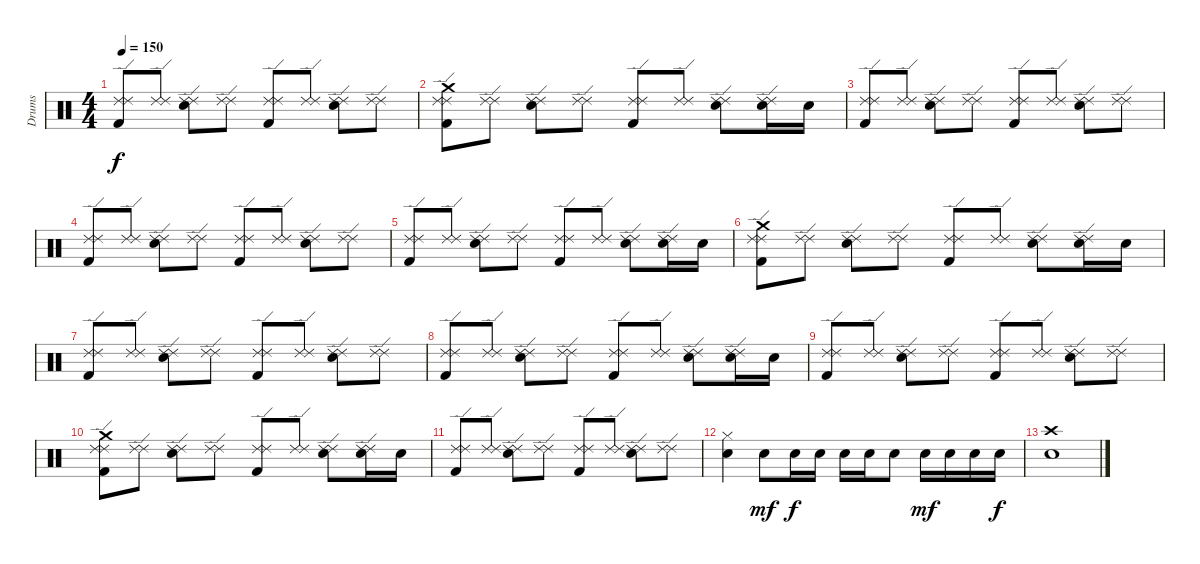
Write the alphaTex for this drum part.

\track ("Drums" "Drums") {instrument percussion}
\staff {score}
\articulation defaults
\ts (4 4)
\tempo 150
\clef neutral
\ks c
("Kick (hit) 2" "Ride (edge) 2" "Ride (edge) 2").8{dy f} ("Ride (edge) 2" "Ride (edge) 2").8 ("Snare (hit) 2" "Ride (edge) 2" "Ride (edge) 2").8 ("Ride (edge) 2" "Ride (edge) 2").8 ("Kick (hit) 2" "Ride (edge) 2" "Ride (edge) 2").8 ("Ride (edge) 2" "Ride (edge) 2").8 ("Snare (hit) 2" "Ride (edge) 2" "Ride (edge) 2").8 ("Ride (edge) 2" "Ride (edge) 2").8 |
("Crash medium (hit)" "Kick (hit) 2" "Ride (edge) 2" "Ride (edge) 2").8 ("Ride (edge) 2" "Ride (edge) 2").8 ("Snare (hit) 2" "Ride (edge) 2" "Ride (edge) 2").8 ("Ride (edge) 2" "Ride (edge) 2").8 ("Kick (hit) 2" "Ride (edge) 2" "Ride (edge) 2").8 ("Ride (edge) 2" "Ride (edge) 2").8 ("Snare (hit) 2" "Ride (edge) 2" "Ride (edge) 2").8 ("Snare (hit) 2" "Ride (edge) 2" "Ride (edge) 2").16 "Snare (hit) 2".16 |
("Kick (hit) 2" "Ride (edge) 2" "Ride (edge) 2").8 ("Ride (edge) 2" "Ride (edge) 2").8 ("Snare (hit) 2" "Ride (edge) 2" "Ride (edge) 2").8 ("Ride (edge) 2" "Ride (edge) 2").8 ("Kick (hit) 2" "Ride (edge) 2" "Ride (edge) 2").8 ("Ride (edge) 2" "Ride (edge) 2").8 ("Snare (hit) 2" "Ride (edge) 2" "Ride (edge) 2").8 ("Ride (edge) 2" "Ride (edge) 2").8 |
("Kick (hit) 2" "Ride (edge) 2" "Ride (edge) 2").8 ("Ride (edge) 2" "Ride (edge) 2").8 ("Snare (hit) 2" "Ride (edge) 2" "Ride (edge) 2").8 ("Ride (edge) 2" "Ride (edge) 2").8 ("Kick (hit) 2" "Ride (edge) 2" "Ride (edge) 2").8 ("Ride (edge) 2" "Ride (edge) 2").8 ("Snare (hit) 2" "Ride (edge) 2" "Ride (edge) 2").8 ("Ride (edge) 2" "Ride (edge) 2").8 |
("Kick (hit) 2" "Ride (edge) 2" "Ride (edge) 2").8 ("Ride (edge) 2" "Ride (edge) 2").8 ("Snare (hit) 2" "Ride (edge) 2" "Ride (edge) 2").8 ("Ride (edge) 2" "Ride (edge) 2").8 ("Kick (hit) 2" "Ride (edge) 2" "Ride (edge) 2").8 ("Ride (edge) 2" "Ride (edge) 2").8 ("Snare (hit) 2" "Ride (edge) 2" "Ride (edge) 2").8 ("Snare (hit) 2" "Ride (edge) 2" "Ride (edge) 2").16 "Snare (hit) 2".16 |
("Crash medium (hit)" "Kick (hit) 2" "Ride (edge) 2" "Ride (edge) 2").8 ("Ride (edge) 2" "Ride (edge) 2").8 ("Snare (hit) 2" "Ride (edge) 2" "Ride (edge) 2").8 ("Ride (edge) 2" "Ride (edge) 2").8 ("Kick (hit) 2" "Ride (edge) 2" "Ride (edge) 2").8 ("Ride (edge) 2" "Ride (edge) 2").8 ("Snare (hit) 2" "Ride (edge) 2" "Ride (edge) 2").8 ("Snare (hit) 2" "Ride (edge) 2" "Ride (edge) 2").16 "Snare (hit) 2".16 |
("Kick (hit) 2" "Ride (edge) 2" "Ride (edge) 2").8 ("Ride (edge) 2" "Ride (edge) 2").8 ("Snare (hit) 2" "Ride (edge) 2" "Ride (edge) 2").8 ("Ride (edge) 2" "Ride (edge) 2").8 ("Kick (hit) 2" "Ride (edge) 2" "Ride (edge) 2").8 ("Ride (edge) 2" "Ride (edge) 2").8 ("Snare (hit) 2" "Ride (edge) 2" "Ride (edge) 2").8 ("Ride (edge) 2" "Ride (edge) 2").8 |
("Kick (hit) 2" "Ride (edge) 2" "Ride (edge) 2").8 ("Ride (edge) 2" "Ride (edge) 2").8 ("Snare (hit) 2" "Ride (edge) 2" "Ride (edge) 2").8 ("Ride (edge) 2" "Ride (edge) 2").8 ("Kick (hit) 2" "Ride (edge) 2" "Ride (edge) 2").8 ("Ride (edge) 2" "Ride (edge) 2").8 ("Snare (hit) 2" "Ride (edge) 2" "Ride (edge) 2").8 ("Snare (hit) 2" "Ride (edge) 2" "Ride (edge) 2").16 "Snare (hit) 2".16 |
("Kick (hit) 2" "Ride (edge) 2" "Ride (edge) 2").8 ("Ride (edge) 2" "Ride (edge) 2").8 ("Snare (hit) 2" "Ride (edge) 2" "Ride (edge) 2").8 ("Ride (edge) 2" "Ride (edge) 2").8 ("Kick (hit) 2" "Ride (edge) 2" "Ride (edge) 2").8 ("Ride (edge) 2" "Ride (edge) 2").8 ("Snare (hit) 2" "Ride (edge) 2" "Ride (edge) 2").8 ("Ride (edge) 2" "Ride (edge) 2").8 |
("Crash medium (hit)" "Kick (hit) 2" "Ride (edge) 2" "Ride (edge) 2").8 ("Ride (edge) 2" "Ride (edge) 2").8 ("Snare (hit) 2" "Ride (edge) 2" "Ride (edge) 2").8 ("Ride (edge) 2" "Ride (edge) 2").8 ("Kick (hit) 2" "Ride (edge) 2" "Ride (edge) 2").8 ("Ride (edge) 2" "Ride (edge) 2").8 ("Snare (hit) 2" "Ride (edge) 2" "Ride (edge) 2").8 ("Snare (hit) 2" "Ride (edge) 2" "Ride (edge) 2").16 "Snare (hit) 2".16 |
("Kick (hit) 2" "Ride (edge) 2" "Ride (edge) 2").8 ("Ride (edge) 2" "Ride (edge) 2").8 ("Snare (hit) 2" "Ride (edge) 2" "Ride (edge) 2").8 ("Ride (edge) 2" "Ride (edge) 2").8 ("Kick (hit) 2" "Ride (edge) 2" "Ride (edge) 2").8 ("Ride (edge) 2" "Ride (edge) 2").8 ("Snare (hit) 2" "Ride (edge) 2" "Ride (edge) 2").8 ("Ride (edge) 2" "Ride (edge) 2").8 |
("Hi-Hat (closed)" "Snare (hit) 2").4 "Snare (hit) 2".8{dy mf} "Snare (hit) 2".16{dy f} "Snare (hit) 2".16 "Snare (hit) 2".16 "Snare (hit) 2".16 "Snare (hit) 2".8 "Snare (hit) 2".16{dy mf} "Snare (hit) 2".16 "Snare (hit) 2".16 "Snare (hit) 2".16{dy f} |
("Crash high (hit)" "Snare (hit) 2").1
